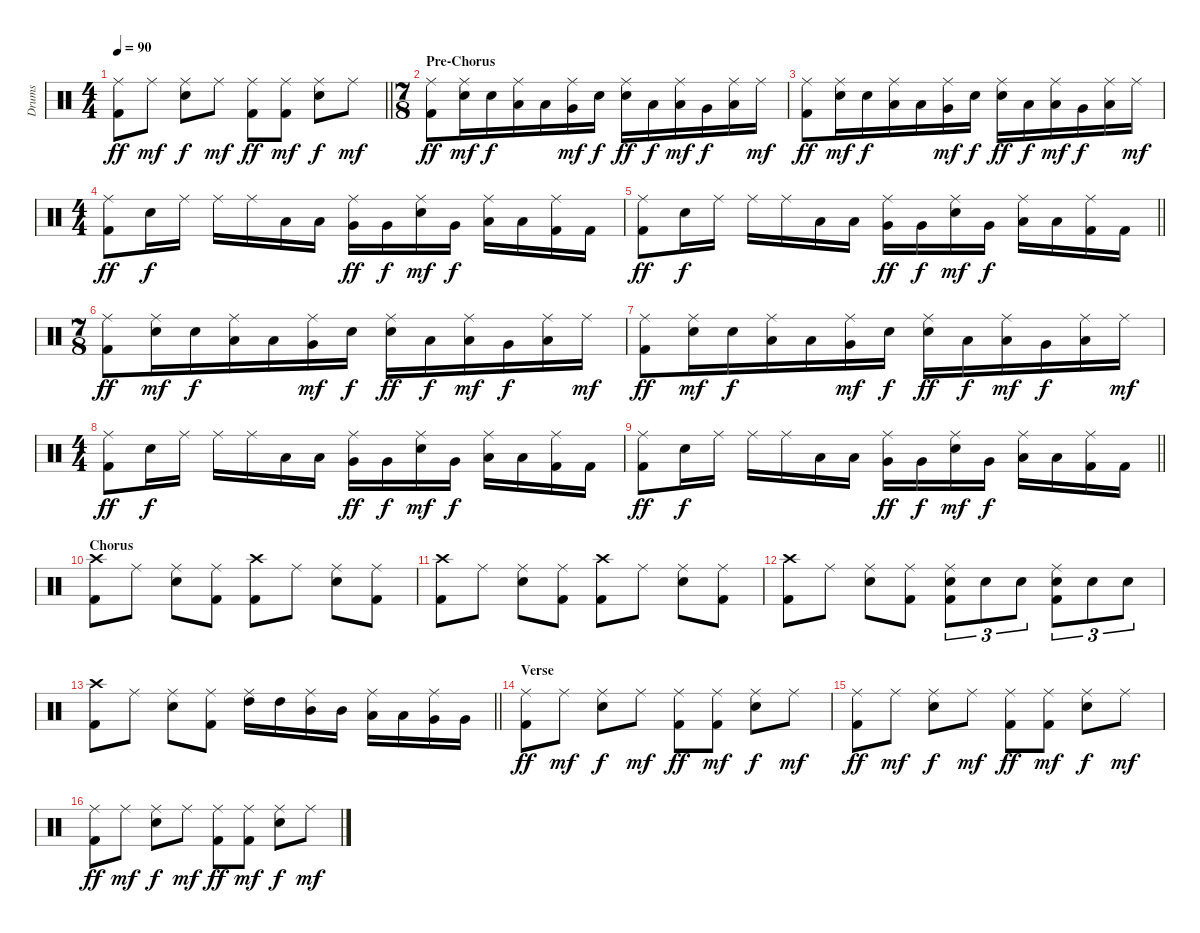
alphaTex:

\track ("Drums" "Drums") {instrument percussion}
\staff {score}
\articulation defaults
\ts (4 4)
\tempo 90
\clef neutral
\barLineRight lightlight
\ks c
("Ride (middle)" "Kick (hit) 2").8{dy ff} "Ride (middle)".8{dy mf} ("Ride (middle)" "Electric Snare (hit)").8{dy f} "Ride (middle)".8{dy mf} ("Ride (middle)" "Kick (hit) 2").8{dy ff} ("Ride (middle)" "Kick (hit) 2").8{dy mf} ("Ride (middle)" "Electric Snare (hit)").8{dy f} "Ride (middle)".8{dy mf} |
\ts (7 8)
\section ("" "Pre-Chorus")
("Ride (middle)" "Kick (hit) 2").8{dy ff} ("Ride (middle)" "Electric Snare (hit)").16{dy mf} "Electric Snare (hit)".16{dy f} ("Ride (middle)" "Low Tom (hit)").16 "Low Tom (hit)".16 ("Ride (middle)" "Very Low Tom (hit)").16{dy mf} "Electric Snare (hit)".16{dy f} ("Ride (middle)" "Electric Snare (hit)").16{dy ff} "Low Tom (hit)".16{dy f} ("Ride (middle)" "Low Tom (hit)").16{dy mf} "Very Low Tom (hit)".16{dy f} ("Ride (middle)" "Low Tom (hit)").16 "Ride (middle)".16{dy mf} |
("Ride (middle)" "Kick (hit) 2").8{dy ff} ("Ride (middle)" "Electric Snare (hit)").16{dy mf} "Electric Snare (hit)".16{dy f} ("Ride (middle)" "Low Tom (hit)").16 "Low Tom (hit)".16 ("Ride (middle)" "Very Low Tom (hit)").16{dy mf} "Electric Snare (hit)".16{dy f} ("Ride (middle)" "Electric Snare (hit)").16{dy ff} "Low Tom (hit)".16{dy f} ("Ride (middle)" "Low Tom (hit)").16{dy mf} "Very Low Tom (hit)".16{dy f} ("Ride (middle)" "Low Tom (hit)").16 "Ride (middle)".16{dy mf} |
\ts (4 4)
("Ride (middle)" "Kick (hit) 2").8{dy ff} "Electric Snare (hit)".16{dy f} "Ride (middle)".16 "Ride (middle)".16 "Ride (middle)".16 "Low Tom (hit)".16 "Low Tom (hit)".16 ("Ride (middle)" "Very Low Tom (hit)").16{dy ff} "Very Low Tom (hit)".16{dy f} ("Ride (middle)" "Electric Snare (hit)").16{dy mf} "Very Low Tom (hit)".16{dy f} ("Ride (middle)" "Low Floor Tom (hit)").16 "Low Floor Tom (hit)".16 ("Ride (middle)" "Kick (hit) 2").16 "Kick (hit) 2".16 |
\barLineRight lightlight
("Ride (middle)" "Kick (hit) 2").8{dy ff} "Electric Snare (hit)".16{dy f} "Ride (middle)".16 "Ride (middle)".16 "Ride (middle)".16 "Low Tom (hit)".16 "Low Tom (hit)".16 ("Ride (middle)" "Very Low Tom (hit)").16{dy ff} "Very Low Tom (hit)".16{dy f} ("Ride (middle)" "Electric Snare (hit)").16{dy mf} "Very Low Tom (hit)".16{dy f} ("Ride (middle)" "Low Floor Tom (hit)").16 "Low Floor Tom (hit)".16 ("Ride (middle)" "Kick (hit) 2").16 "Kick (hit) 2".16 |
\ts (7 8)
("Ride (middle)" "Kick (hit) 2").8{dy ff} ("Ride (middle)" "Electric Snare (hit)").16{dy mf} "Electric Snare (hit)".16{dy f} ("Ride (middle)" "Low Tom (hit)").16 "Low Tom (hit)".16 ("Ride (middle)" "Very Low Tom (hit)").16{dy mf} "Electric Snare (hit)".16{dy f} ("Ride (middle)" "Electric Snare (hit)").16{dy ff} "Low Tom (hit)".16{dy f} ("Ride (middle)" "Low Tom (hit)").16{dy mf} "Very Low Tom (hit)".16{dy f} ("Ride (middle)" "Low Tom (hit)").16 "Ride (middle)".16{dy mf} |
("Ride (middle)" "Kick (hit) 2").8{dy ff} ("Ride (middle)" "Electric Snare (hit)").16{dy mf} "Electric Snare (hit)".16{dy f} ("Ride (middle)" "Low Tom (hit)").16 "Low Tom (hit)".16 ("Ride (middle)" "Very Low Tom (hit)").16{dy mf} "Electric Snare (hit)".16{dy f} ("Ride (middle)" "Electric Snare (hit)").16{dy ff} "Low Tom (hit)".16{dy f} ("Ride (middle)" "Low Tom (hit)").16{dy mf} "Very Low Tom (hit)".16{dy f} ("Ride (middle)" "Low Tom (hit)").16 "Ride (middle)".16{dy mf} |
\ts (4 4)
("Ride (middle)" "Kick (hit) 2").8{dy ff} "Electric Snare (hit)".16{dy f} "Ride (middle)".16 "Ride (middle)".16 "Ride (middle)".16 "Low Tom (hit)".16 "Low Tom (hit)".16 ("Ride (middle)" "Very Low Tom (hit)").16{dy ff} "Very Low Tom (hit)".16{dy f} ("Ride (middle)" "Electric Snare (hit)").16{dy mf} "Very Low Tom (hit)".16{dy f} ("Ride (middle)" "Low Floor Tom (hit)").16 "Low Floor Tom (hit)".16 ("Ride (middle)" "Kick (hit) 2").16 "Kick (hit) 2".16 |
\barLineRight lightlight
("Ride (middle)" "Kick (hit) 2").8{dy ff} "Electric Snare (hit)".16{dy f} "Ride (middle)".16 "Ride (middle)".16 "Ride (middle)".16 "Low Tom (hit)".16 "Low Tom (hit)".16 ("Ride (middle)" "Very Low Tom (hit)").16{dy ff} "Very Low Tom (hit)".16{dy f} ("Ride (middle)" "Electric Snare (hit)").16{dy mf} "Very Low Tom (hit)".16{dy f} ("Ride (middle)" "Low Floor Tom (hit)").16 "Low Floor Tom (hit)".16 ("Ride (middle)" "Kick (hit) 2").16 "Kick (hit) 2".16 |
\section ("" "Chorus")
("Crash high (hit)" "Kick (hit) 2").8 "Ride (middle)".8 ("Ride (middle)" "Electric Snare (hit)").8 ("Ride (middle)" "Kick (hit) 2").8 ("Crash high (hit)" "Kick (hit) 2").8 "Ride (middle)".8 ("Ride (middle)" "Electric Snare (hit)").8 ("Ride (middle)" "Kick (hit) 2").8 |
("Crash high (hit)" "Kick (hit) 2").8 "Ride (middle)".8 ("Ride (middle)" "Electric Snare (hit)").8 ("Ride (middle)" "Kick (hit) 2").8 ("Crash high (hit)" "Kick (hit) 2").8 "Ride (middle)".8 ("Ride (middle)" "Electric Snare (hit)").8 ("Ride (middle)" "Kick (hit) 2").8 |
("Crash high (hit)" "Kick (hit) 2").8 "Ride (middle)".8 ("Ride (middle)" "Electric Snare (hit)").8 ("Ride (middle)" "Kick (hit) 2").8 ("Ride (middle)" "Electric Snare (hit)" "Kick (hit) 2").8{tu (3 2)} "Electric Snare (hit)".8{tu (3 2)} "Electric Snare (hit)".8{tu (3 2)} ("Ride (middle)" "Electric Snare (hit)" "Kick (hit) 2").8{tu (3 2)} "Electric Snare (hit)".8{tu (3 2)} "Electric Snare (hit)".8{tu (3 2)} |
\barLineRight lightlight
("Crash high (hit)" "Kick (hit) 2").8 "Ride (middle)".8 ("Ride (middle)" "Electric Snare (hit)").8 ("Ride (middle)" "Kick (hit) 2").8 ("Ride (middle)" "High Tom (hit)").16 "High Tom (hit)".16 ("Ride (middle)" "Mid Tom (hit)").16 "Mid Tom (hit)".16 ("Ride (middle)" "Low Tom (hit)").16 "Low Tom (hit)".16 ("Ride (middle)" "Very Low Tom (hit)").16 "Very Low Tom (hit)".16 |
\section ("" "Verse")
("Ride (middle)" "Kick (hit) 2").8{dy ff} "Ride (middle)".8{dy mf} ("Ride (middle)" "Electric Snare (hit)").8{dy f} "Ride (middle)".8{dy mf} ("Ride (middle)" "Kick (hit) 2").8{dy ff} ("Ride (middle)" "Kick (hit) 2").8{dy mf} ("Ride (middle)" "Electric Snare (hit)").8{dy f} "Ride (middle)".8{dy mf} |
("Ride (middle)" "Kick (hit) 2").8{dy ff} "Ride (middle)".8{dy mf} ("Ride (middle)" "Electric Snare (hit)").8{dy f} "Ride (middle)".8{dy mf} ("Ride (middle)" "Kick (hit) 2").8{dy ff} ("Ride (middle)" "Kick (hit) 2").8{dy mf} ("Ride (middle)" "Electric Snare (hit)").8{dy f} "Ride (middle)".8{dy mf} |
("Ride (middle)" "Kick (hit) 2").8{dy ff} "Ride (middle)".8{dy mf} ("Ride (middle)" "Electric Snare (hit)").8{dy f} "Ride (middle)".8{dy mf} ("Ride (middle)" "Kick (hit) 2").8{dy ff} ("Ride (middle)" "Kick (hit) 2").8{dy mf} ("Ride (middle)" "Electric Snare (hit)").8{dy f} "Ride (middle)".8{dy mf}
